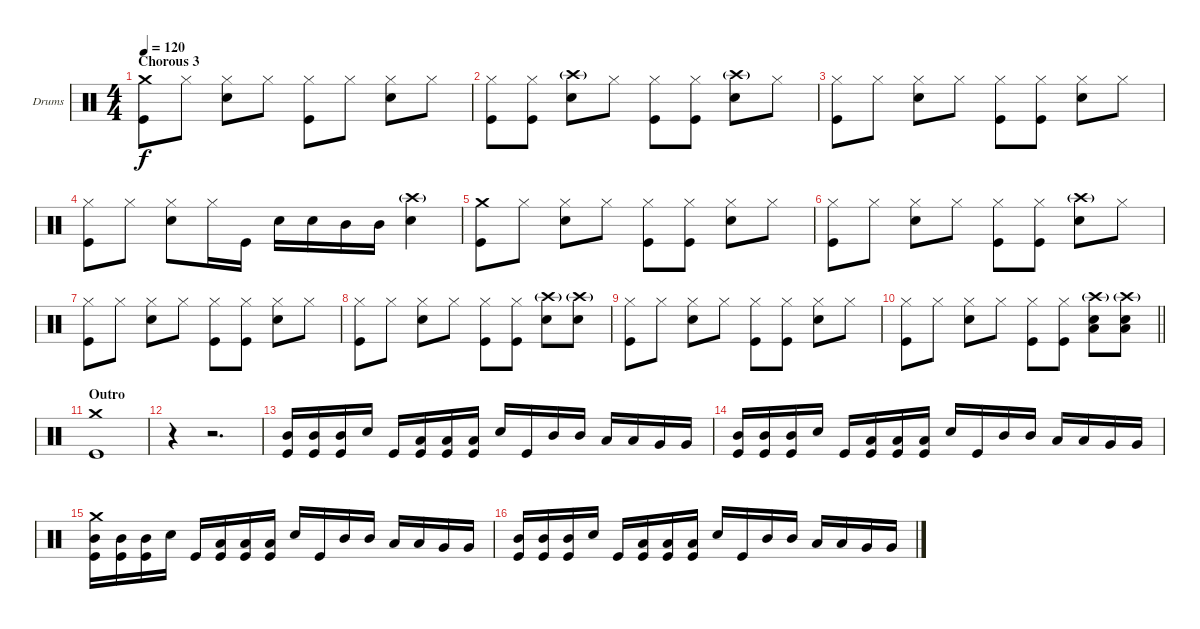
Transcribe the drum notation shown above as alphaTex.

\bracketExtendMode groupsimilarinstruments
\firstSystemTrackNameOrientation horizontal
\otherSystemsTrackNameOrientation horizontal
\track ("Drumkit" "Drums") {instrument percussion}
\staff {score}
\articulation defaults
\ts (4 4)
\section ("" "Chorous 3")
\tempo 120
\clef neutral
\ks c
("Crash medium (hit)" "Kick (hit)").8{dy f} "Hi-Hat (closed)".8 ("Hi-Hat (closed)" "Snare (hit) 2").8 "Hi-Hat (closed)".8 ("Hi-Hat (closed)" "Kick (hit)").8 "Hi-Hat (closed)".8 ("Hi-Hat (closed)" "Snare (hit) 2").8 "Hi-Hat (closed)".8 |
("Hi-Hat (closed)" "Kick (hit)").8 ("Hi-Hat (closed)" "Kick (hit)").8 ("Crash high (hit)"{g} "Snare (hit) 2").8 "Hi-Hat (closed)".8 ("Hi-Hat (closed)" "Kick (hit)").8 ("Hi-Hat (closed)" "Kick (hit)").8 ("Crash high (hit)"{g} "Snare (hit) 2").8 "Hi-Hat (closed)".8 |
("Hi-Hat (closed)" "Kick (hit)").8 "Hi-Hat (closed)".8 ("Hi-Hat (closed)" "Snare (hit) 2").8 "Hi-Hat (closed)".8 ("Hi-Hat (closed)" "Kick (hit)").8 ("Hi-Hat (closed)" "Kick (hit)").8 ("Hi-Hat (closed)" "Snare (hit) 2").8 "Hi-Hat (closed)".8 |
("Hi-Hat (closed)" "Kick (hit)").8 "Hi-Hat (closed)".8 ("Hi-Hat (closed)" "Snare (hit) 2").8 "Hi-Hat (closed)".16 "Kick (hit)".16 "Snare (hit) 2".16 "Snare (hit) 2".16 "Mid Tom (hit)".16 "Mid Tom (hit)".16 ("Crash high (hit)"{g} "Snare (hit) 2").4 |
("Crash medium (hit)" "Kick (hit)").8 "Hi-Hat (closed)".8 ("Hi-Hat (closed)" "Snare (hit) 2").8 "Hi-Hat (closed)".8 ("Hi-Hat (closed)" "Kick (hit)").8 ("Hi-Hat (closed)" "Kick (hit)").8 ("Hi-Hat (closed)" "Snare (hit) 2").8 "Hi-Hat (closed)".8 |
("Hi-Hat (closed)" "Kick (hit)").8 "Hi-Hat (closed)".8 ("Hi-Hat (closed)" "Snare (hit) 2").8 "Hi-Hat (closed)".8 ("Hi-Hat (closed)" "Kick (hit)").8 ("Hi-Hat (closed)" "Kick (hit)").8 ("Crash high (hit)"{g} "Snare (hit) 2").8 "Hi-Hat (closed)".8 |
("Hi-Hat (closed)" "Kick (hit)").8 "Hi-Hat (closed)".8 ("Hi-Hat (closed)" "Snare (hit) 2").8 "Hi-Hat (closed)".8 ("Hi-Hat (closed)" "Kick (hit)").8 ("Hi-Hat (closed)" "Kick (hit)").8 ("Hi-Hat (closed)" "Snare (hit) 2").8 "Hi-Hat (closed)".8 |
("Hi-Hat (closed)" "Kick (hit)").8 "Hi-Hat (closed)".8 ("Hi-Hat (closed)" "Snare (hit) 2").8 "Hi-Hat (closed)".8 ("Hi-Hat (closed)" "Kick (hit)").8 ("Hi-Hat (closed)" "Kick (hit)").8 ("Crash high (hit)"{g} "Snare (hit) 2").8 ("Crash high (hit)"{g} "Snare (hit) 2").8 |
("Hi-Hat (closed)" "Kick (hit)").8 "Hi-Hat (closed)".8 ("Hi-Hat (closed)" "Snare (hit) 2").8 "Hi-Hat (closed)".8 ("Hi-Hat (closed)" "Kick (hit)").8 ("Hi-Hat (closed)" "Kick (hit)").8 ("Hi-Hat (closed)" "Snare (hit) 2").8 "Hi-Hat (closed)".8 |
\barLineRight lightlight
("Hi-Hat (closed)" "Kick (hit)").8 "Hi-Hat (closed)".8 ("Hi-Hat (closed)" "Snare (hit) 2").8 "Hi-Hat (closed)".8 ("Hi-Hat (closed)" "Kick (hit)").8 ("Hi-Hat (closed)" "Kick (hit)").8 ("Crash high (hit)"{g} "Snare (hit) 2" "Low Tom (hit)").8 ("Crash high (hit)"{g} "Snare (hit) 2" "Low Tom (hit)").8 |
\section ("" "Outro")
("Crash medium (hit)" "Kick (hit)").1 |
r.4 r.2{d} |
("Kick (hit)" "Mid Tom (hit)").16 ("Kick (hit)" "Mid Tom (hit)").16 ("Kick (hit)" "Mid Tom (hit)").16 "Snare (hit) 2".16 "Kick (hit)".16 ("Kick (hit)" "Low Tom (hit)").16 ("Kick (hit)" "Low Tom (hit)").16 ("Kick (hit)" "Low Tom (hit)").16 "Snare (hit) 2".16 "Kick (hit)".16 "Mid Tom (hit)".16 "Mid Tom (hit)".16 "Low Tom (hit)".16 "Low Tom (hit)".16 "Very Low Tom (hit)".16 "Very Low Tom (hit)".16 |
("Kick (hit)" "Mid Tom (hit)").16 ("Kick (hit)" "Mid Tom (hit)").16 ("Kick (hit)" "Mid Tom (hit)").16 "Snare (hit) 2".16 "Kick (hit)".16 ("Kick (hit)" "Low Tom (hit)").16 ("Kick (hit)" "Low Tom (hit)").16 ("Kick (hit)" "Low Tom (hit)").16 "Snare (hit) 2".16 "Kick (hit)".16 "Mid Tom (hit)".16 "Mid Tom (hit)".16 "Low Tom (hit)".16 "Low Tom (hit)".16 "Very Low Tom (hit)".16 "Very Low Tom (hit)".16 |
("Crash medium (hit)" "Kick (hit)" "Mid Tom (hit)").16 ("Kick (hit)" "Mid Tom (hit)").16 ("Kick (hit)" "Mid Tom (hit)").16 "Snare (hit) 2".16 "Kick (hit)".16 ("Kick (hit)" "Low Tom (hit)").16 ("Kick (hit)" "Low Tom (hit)").16 ("Kick (hit)" "Low Tom (hit)").16 "Snare (hit) 2".16 "Kick (hit)".16 "Mid Tom (hit)".16 "Mid Tom (hit)".16 "Low Tom (hit)".16 "Low Tom (hit)".16 "Very Low Tom (hit)".16 "Very Low Tom (hit)".16 |
("Kick (hit)" "Mid Tom (hit)").16 ("Kick (hit)" "Mid Tom (hit)").16 ("Kick (hit)" "Mid Tom (hit)").16 "Snare (hit) 2".16 "Kick (hit)".16 ("Kick (hit)" "Low Tom (hit)").16 ("Kick (hit)" "Low Tom (hit)").16 ("Kick (hit)" "Low Tom (hit)").16 "Snare (hit) 2".16 "Kick (hit)".16 "Mid Tom (hit)".16 "Mid Tom (hit)".16 "Low Tom (hit)".16 "Low Tom (hit)".16 "Very Low Tom (hit)".16 "Very Low Tom (hit)".16
